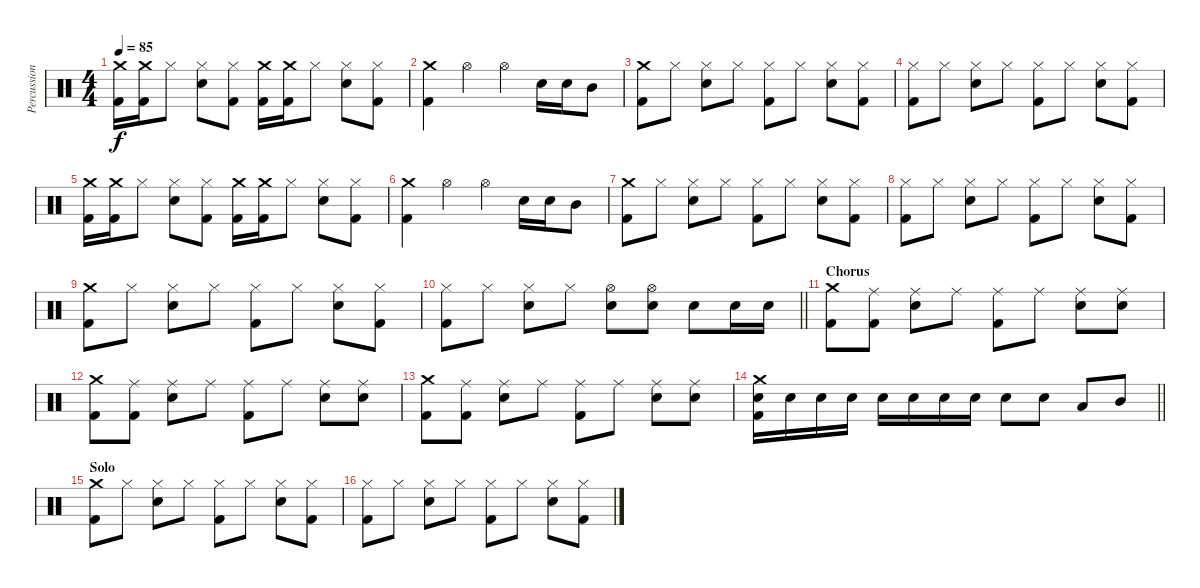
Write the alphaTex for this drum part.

\track ("Percussion" "Percussion") {instrument percussion}
\staff {score}
\articulation defaults
\ts (4 4)
\tempo 85
\clef neutral
\ks c
("Crash medium (hit)" "Kick (hit) 2").16{dy f} ("Crash medium (hit)" "Kick (hit) 2").16 "Hi-Hat (closed)".8 ("Hi-Hat (closed)" "Electric Snare (hit)").8 ("Hi-Hat (closed)" "Kick (hit) 2").8 ("Crash medium (hit)" "Kick (hit) 2").16 ("Crash medium (hit)" "Kick (hit) 2").16 "Hi-Hat (closed)".8 ("Hi-Hat (closed)" "Electric Snare (hit)").8 ("Hi-Hat (closed)" "Kick (hit) 2").8 |
("Crash medium (hit)" "Kick (hit) 2").4 "Hi-Hat (open)".4 "Hi-Hat (open)".4 "Electric Snare (hit)".16 "Electric Snare (hit)".16 "Mid Tom (hit)".8 |
("Crash medium (hit)" "Kick (hit) 2").8 "Hi-Hat (closed)".8 ("Hi-Hat (closed)" "Electric Snare (hit)").8 "Hi-Hat (closed)".8 ("Hi-Hat (closed)" "Kick (hit) 2").8 "Hi-Hat (closed)".8 ("Hi-Hat (closed)" "Electric Snare (hit)").8 ("Hi-Hat (closed)" "Kick (hit) 2").8 |
("Hi-Hat (closed)" "Kick (hit) 2").8 "Hi-Hat (closed)".8 ("Hi-Hat (closed)" "Electric Snare (hit)").8 "Hi-Hat (closed)".8 ("Hi-Hat (closed)" "Kick (hit) 2").8 "Hi-Hat (closed)".8 ("Hi-Hat (closed)" "Electric Snare (hit)").8 ("Hi-Hat (closed)" "Kick (hit) 2").8 |
("Crash medium (hit)" "Kick (hit) 2").16 ("Crash medium (hit)" "Kick (hit) 2").16 "Hi-Hat (closed)".8 ("Hi-Hat (closed)" "Electric Snare (hit)").8 ("Hi-Hat (closed)" "Kick (hit) 2").8 ("Crash medium (hit)" "Kick (hit) 2").16 ("Crash medium (hit)" "Kick (hit) 2").16 "Hi-Hat (closed)".8 ("Hi-Hat (closed)" "Electric Snare (hit)").8 ("Hi-Hat (closed)" "Kick (hit) 2").8 |
("Crash medium (hit)" "Kick (hit) 2").4 "Hi-Hat (open)".4 "Hi-Hat (open)".4 "Electric Snare (hit)".16 "Electric Snare (hit)".16 "Mid Tom (hit)".8 |
("Crash medium (hit)" "Kick (hit) 2").8 "Hi-Hat (closed)".8 ("Hi-Hat (closed)" "Electric Snare (hit)").8 "Hi-Hat (closed)".8 ("Hi-Hat (closed)" "Kick (hit) 2").8 "Hi-Hat (closed)".8 ("Hi-Hat (closed)" "Electric Snare (hit)").8 ("Hi-Hat (closed)" "Kick (hit) 2").8 |
("Hi-Hat (closed)" "Kick (hit) 2").8 "Hi-Hat (closed)".8 ("Hi-Hat (closed)" "Electric Snare (hit)").8 "Hi-Hat (closed)".8 ("Hi-Hat (closed)" "Kick (hit) 2").8 "Hi-Hat (closed)".8 ("Hi-Hat (closed)" "Electric Snare (hit)").8 ("Hi-Hat (closed)" "Kick (hit) 2").8 |
("Crash medium (hit)" "Kick (hit) 2").8 "Hi-Hat (closed)".8 ("Hi-Hat (closed)" "Electric Snare (hit)").8 "Hi-Hat (closed)".8 ("Hi-Hat (closed)" "Kick (hit) 2").8 "Hi-Hat (closed)".8 ("Hi-Hat (closed)" "Electric Snare (hit)").8 ("Hi-Hat (closed)" "Kick (hit) 2").8 |
\barLineRight lightlight
("Hi-Hat (closed)" "Kick (hit) 2").8 "Hi-Hat (closed)".8 ("Hi-Hat (closed)" "Electric Snare (hit)").8 "Hi-Hat (closed)".8 ("Hi-Hat (open)" "Electric Snare (hit)").8 ("Hi-Hat (open)" "Electric Snare (hit)").8 "Electric Snare (hit)".8 "Electric Snare (hit)".16 "Electric Snare (hit)".16 |
\section ("" "Chorus")
("Crash medium (hit)" "Kick (hit) 2").8 ("Ride (middle)" "Kick (hit) 2").8 ("Ride (middle)" "Electric Snare (hit)").8 "Ride (middle)".8 ("Ride (middle)" "Kick (hit) 2").8 "Ride (middle)".8 ("Ride (middle)" "Electric Snare (hit)").8 ("Ride (middle)" "Electric Snare (hit)").8 |
("Crash medium (hit)" "Kick (hit) 2").8 ("Ride (middle)" "Kick (hit) 2").8 ("Ride (middle)" "Electric Snare (hit)").8 "Ride (middle)".8 ("Ride (middle)" "Kick (hit) 2").8 "Ride (middle)".8 ("Ride (middle)" "Electric Snare (hit)").8 ("Ride (middle)" "Electric Snare (hit)").8 |
("Crash medium (hit)" "Kick (hit) 2").8 ("Ride (middle)" "Kick (hit) 2").8 ("Ride (middle)" "Electric Snare (hit)").8 "Ride (middle)".8 ("Ride (middle)" "Kick (hit) 2").8 "Ride (middle)".8 ("Ride (middle)" "Electric Snare (hit)").8 ("Ride (middle)" "Electric Snare (hit)").8 |
\barLineRight lightlight
("Crash medium (hit)" "Electric Snare (hit)" "Kick (hit) 2").16 "Electric Snare (hit)".16 "Electric Snare (hit)".16 "Electric Snare (hit)".16 "Electric Snare (hit)".16 "Electric Snare (hit)".16 "Electric Snare (hit)".16 "Electric Snare (hit)".16 "Electric Snare (hit)".8 "Electric Snare (hit)".8 "Low Tom (hit)".8 "Mid Tom (hit)".8 |
\section ("" "Solo")
("Crash medium (hit)" "Kick (hit) 2").8 "Hi-Hat (closed)".8 ("Hi-Hat (closed)" "Electric Snare (hit)").8 "Hi-Hat (closed)".8 ("Hi-Hat (closed)" "Kick (hit) 2").8 "Hi-Hat (closed)".8 ("Hi-Hat (closed)" "Electric Snare (hit)").8 ("Hi-Hat (closed)" "Kick (hit) 2").8 |
("Hi-Hat (closed)" "Kick (hit) 2").8 "Hi-Hat (closed)".8 ("Hi-Hat (closed)" "Electric Snare (hit)").8 "Hi-Hat (closed)".8 ("Hi-Hat (closed)" "Kick (hit) 2").8 "Hi-Hat (closed)".8 ("Hi-Hat (closed)" "Electric Snare (hit)").8 ("Hi-Hat (closed)" "Kick (hit) 2").8
